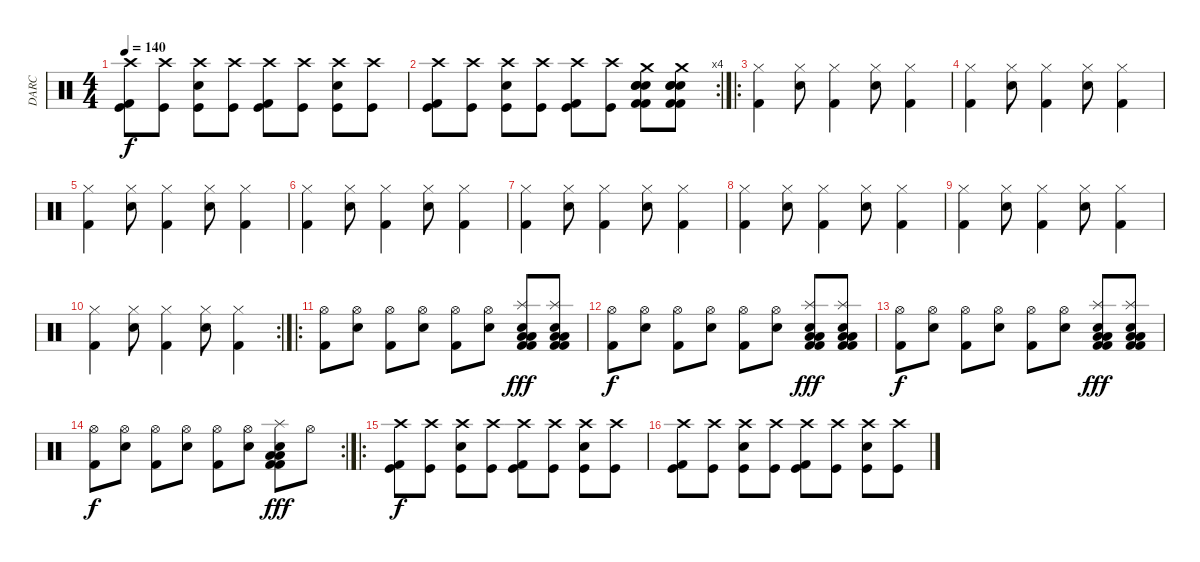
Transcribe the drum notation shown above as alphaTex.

\track ("DARC" "DARC") {instrument percussion}
\staff {score}
\articulation defaults
\ts (4 4)
\tempo 140
\clef neutral
\ks c
("Kick (hit)" "Crash high (hit)" "Kick (hit) 2").8{dy f} ("Kick (hit)" "Crash high (hit)").8 ("Kick (hit)" "Crash high (hit)" "Snare (hit) 2").8 ("Kick (hit)" "Crash high (hit)").8 ("Kick (hit)" "Crash high (hit)" "Kick (hit) 2").8 ("Kick (hit)" "Crash high (hit)").8 ("Kick (hit)" "Crash high (hit)" "Snare (hit) 2").8 ("Kick (hit)" "Crash high (hit)").8 |
\rc 4
("Kick (hit)" "Crash high (hit)" "Kick (hit) 2").8 ("Kick (hit)" "Crash high (hit)").8 ("Kick (hit)" "Crash high (hit)" "Snare (hit) 2").8 ("Kick (hit)" "Crash high (hit)").8 ("Kick (hit)" "Crash high (hit)" "Kick (hit) 2").8 ("Kick (hit)" "Crash high (hit)").8 ("Kick (hit) 2" "Electric Snare (hit)" "Electric Snare (hit)" "Crash medium (hit)" "Electric Snare (hit)" "Kick (hit) 2").8 ("Kick (hit) 2" "Electric Snare (hit)" "Electric Snare (hit)" "Crash medium (hit)" "Electric Snare (hit)" "Kick (hit) 2").8 |
\ro
("Hi-Hat (closed)" "Kick (hit) 2").4 ("Hi-Hat (closed)" "Electric Snare (hit)").8 ("Hi-Hat (closed)" "Kick (hit) 2").4 ("Hi-Hat (closed)" "Electric Snare (hit)").8 ("Hi-Hat (closed)" "Kick (hit) 2").4 |
("Hi-Hat (closed)" "Kick (hit) 2").4 ("Hi-Hat (closed)" "Electric Snare (hit)").8 ("Hi-Hat (closed)" "Kick (hit) 2").4 ("Hi-Hat (closed)" "Electric Snare (hit)").8 ("Hi-Hat (closed)" "Kick (hit) 2").4 |
("Hi-Hat (closed)" "Kick (hit) 2").4 ("Hi-Hat (closed)" "Electric Snare (hit)").8 ("Hi-Hat (closed)" "Kick (hit) 2").4 ("Hi-Hat (closed)" "Electric Snare (hit)").8 ("Hi-Hat (closed)" "Kick (hit) 2").4 |
("Hi-Hat (closed)" "Kick (hit) 2").4 ("Hi-Hat (closed)" "Electric Snare (hit)").8 ("Hi-Hat (closed)" "Kick (hit) 2").4 ("Hi-Hat (closed)" "Electric Snare (hit)").8 ("Hi-Hat (closed)" "Kick (hit) 2").4 |
("Hi-Hat (closed)" "Kick (hit) 2").4 ("Hi-Hat (closed)" "Electric Snare (hit)").8 ("Hi-Hat (closed)" "Kick (hit) 2").4 ("Hi-Hat (closed)" "Electric Snare (hit)").8 ("Hi-Hat (closed)" "Kick (hit) 2").4 |
("Hi-Hat (closed)" "Kick (hit) 2").4 ("Hi-Hat (closed)" "Electric Snare (hit)").8 ("Hi-Hat (closed)" "Kick (hit) 2").4 ("Hi-Hat (closed)" "Electric Snare (hit)").8 ("Hi-Hat (closed)" "Kick (hit) 2").4 |
("Hi-Hat (closed)" "Kick (hit) 2").4 ("Hi-Hat (closed)" "Electric Snare (hit)").8 ("Hi-Hat (closed)" "Kick (hit) 2").4 ("Hi-Hat (closed)" "Electric Snare (hit)").8 ("Hi-Hat (closed)" "Kick (hit) 2").4 |
\rc 2
("Hi-Hat (closed)" "Kick (hit) 2").4 ("Hi-Hat (closed)" "Electric Snare (hit)").8 ("Hi-Hat (closed)" "Kick (hit) 2").4 ("Hi-Hat (closed)" "Electric Snare (hit)").8 ("Hi-Hat (closed)" "Kick (hit) 2").4 |
\ro
("Hi-Hat (open)" "Kick (hit) 2").8 ("Hi-Hat (open)" "Electric Snare (hit)").8 ("Hi-Hat (open)" "Kick (hit) 2").8 ("Hi-Hat (open)" "Electric Snare (hit)").8 ("Hi-Hat (open)" "Kick (hit) 2").8 ("Hi-Hat (open)" "Electric Snare (hit)").8 ("Splash (hit)" "Electric Snare (hit)" "Kick (hit) 2" "Low Floor Tom (hit)" "Low Floor Tom (hit)" "Kick (hit) 2").8{dy fff} ("Splash (hit)" "Electric Snare (hit)" "Kick (hit) 2" "Low Floor Tom (hit)" "Low Floor Tom (hit)" "Kick (hit) 2").8 |
("Hi-Hat (open)" "Kick (hit) 2").8{dy f} ("Hi-Hat (open)" "Electric Snare (hit)").8 ("Hi-Hat (open)" "Kick (hit) 2").8 ("Hi-Hat (open)" "Electric Snare (hit)").8 ("Hi-Hat (open)" "Kick (hit) 2").8 ("Hi-Hat (open)" "Electric Snare (hit)").8 ("Splash (hit)" "Electric Snare (hit)" "Kick (hit) 2" "Low Floor Tom (hit)" "Low Floor Tom (hit)" "Kick (hit) 2").8{dy fff} ("Splash (hit)" "Electric Snare (hit)" "Kick (hit) 2" "Low Floor Tom (hit)" "Low Floor Tom (hit)" "Kick (hit) 2").8 |
("Hi-Hat (open)" "Kick (hit) 2").8{dy f} ("Hi-Hat (open)" "Electric Snare (hit)").8 ("Hi-Hat (open)" "Kick (hit) 2").8 ("Hi-Hat (open)" "Electric Snare (hit)").8 ("Hi-Hat (open)" "Kick (hit) 2").8 ("Hi-Hat (open)" "Electric Snare (hit)").8 ("Splash (hit)" "Electric Snare (hit)" "Kick (hit) 2" "Low Floor Tom (hit)" "Low Floor Tom (hit)" "Kick (hit) 2").8{dy fff} ("Splash (hit)" "Electric Snare (hit)" "Kick (hit) 2" "Low Floor Tom (hit)" "Low Floor Tom (hit)" "Kick (hit) 2").8 |
\rc 2
("Hi-Hat (open)" "Kick (hit) 2").8{dy f} ("Hi-Hat (open)" "Electric Snare (hit)").8 ("Hi-Hat (open)" "Kick (hit) 2").8 ("Hi-Hat (open)" "Electric Snare (hit)").8 ("Hi-Hat (open)" "Kick (hit) 2").8 ("Hi-Hat (open)" "Electric Snare (hit)").8 ("Splash (hit)" "Electric Snare (hit)" "Kick (hit) 2" "Low Floor Tom (hit)" "Low Floor Tom (hit)" "Kick (hit) 2").8{dy fff} "Hi-Hat (open)".8 |
\ro
("Kick (hit)" "Crash high (hit)" "Kick (hit) 2").8{dy f} ("Kick (hit)" "Crash high (hit)").8 ("Kick (hit)" "Crash high (hit)" "Snare (hit) 2").8 ("Kick (hit)" "Crash high (hit)").8 ("Kick (hit)" "Crash high (hit)" "Kick (hit) 2").8 ("Kick (hit)" "Crash high (hit)").8 ("Kick (hit)" "Crash high (hit)" "Snare (hit) 2").8 ("Kick (hit)" "Crash high (hit)").8 |
("Kick (hit)" "Crash high (hit)" "Kick (hit) 2").8 ("Kick (hit)" "Crash high (hit)").8 ("Kick (hit)" "Crash high (hit)" "Snare (hit) 2").8 ("Kick (hit)" "Crash high (hit)").8 ("Kick (hit)" "Crash high (hit)" "Kick (hit) 2").8 ("Kick (hit)" "Crash high (hit)").8 ("Kick (hit)" "Crash high (hit)" "Snare (hit) 2").8 ("Kick (hit)" "Crash high (hit)").8
